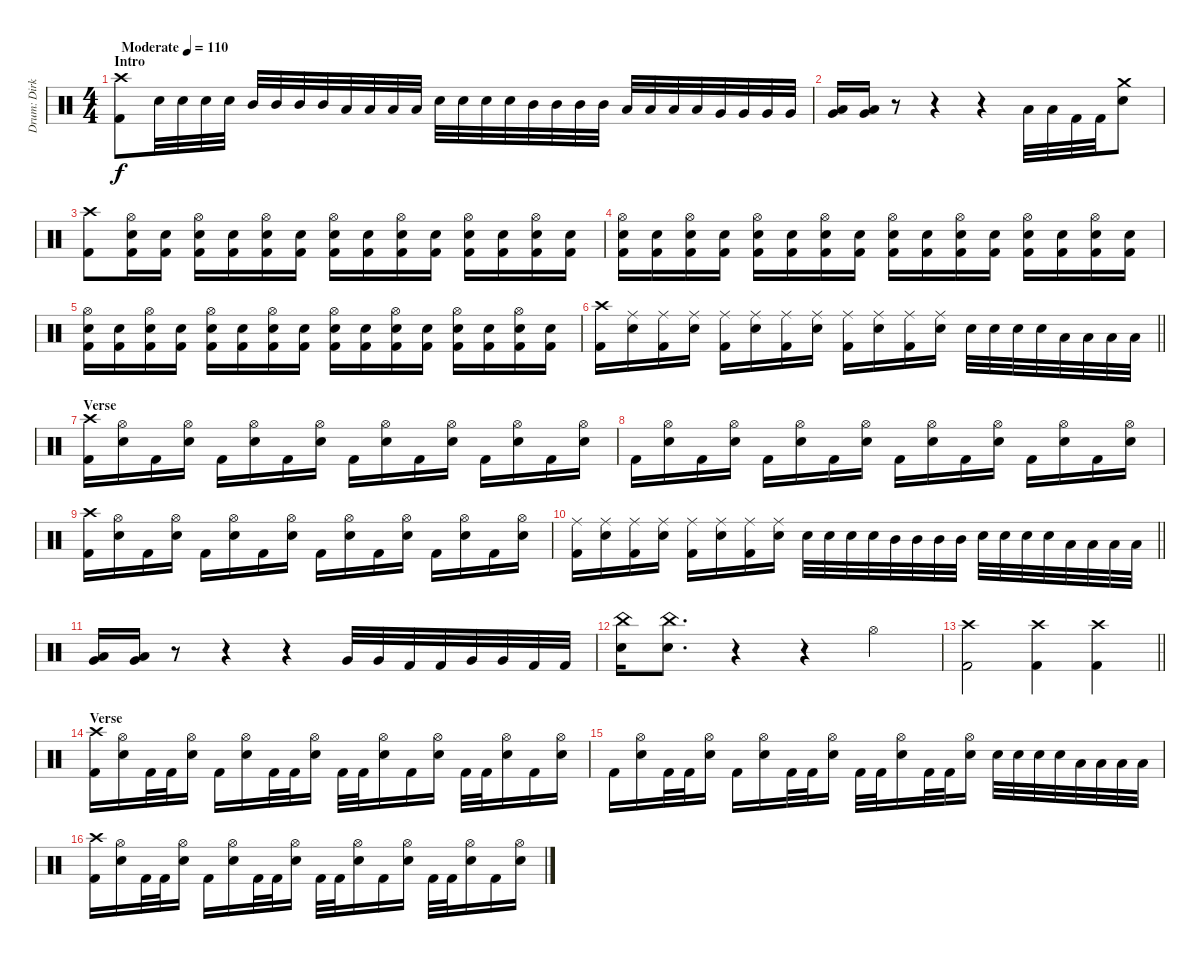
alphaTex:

\track ("Drum: Dirk" "Drum: Dirk") {instrument percussion}
\staff {score}
\articulation defaults
\ts (4 4)
\section ("" "Intro")
\tempo (110 "Moderate")
\clef neutral
\ks c
("Crash high (hit)" "Kick (hit) 2").8{dy f} "Electric Snare (hit)".32 "Electric Snare (hit)".32 "Electric Snare (hit)".32 "Electric Snare (hit)".32 "Mid Tom (hit)".32 "Mid Tom (hit)".32 "Mid Tom (hit)".32 "Mid Tom (hit)".32 "Low Tom (hit)".32 "Low Tom (hit)".32 "Low Tom (hit)".32 "Low Tom (hit)".32 "Electric Snare (hit)".32 "Electric Snare (hit)".32 "Electric Snare (hit)".32 "Electric Snare (hit)".32 "Mid Tom (hit)".32 "Mid Tom (hit)".32 "Mid Tom (hit)".32 "Mid Tom (hit)".32 "Low Tom (hit)".32 "Low Tom (hit)".32 "Low Tom (hit)".32 "Low Tom (hit)".32 "Very Low Tom (hit)".32 "Very Low Tom (hit)".32 "Very Low Tom (hit)".32 "Very Low Tom (hit)".32 |
("Low Tom (hit)" "Very Low Tom (hit)").16 ("Low Tom (hit)" "Very Low Tom (hit)").16 r.8 r.4 r.4 "Low Tom (hit)".32 "Low Tom (hit)".32 "Kick (hit) 2".32 "Kick (hit) 2".32 ("Crash medium (hit)" "Electric Snare (hit)").8 |
("Crash high (hit)" "Kick (hit) 2").8 ("Hi-Hat (open)" "Electric Snare (hit)" "Kick (hit) 2").16 ("Electric Snare (hit)" "Kick (hit) 2").16 ("Hi-Hat (open)" "Electric Snare (hit)" "Kick (hit) 2").16 ("Electric Snare (hit)" "Kick (hit) 2").16 ("Hi-Hat (open)" "Electric Snare (hit)" "Kick (hit) 2").16 ("Electric Snare (hit)" "Kick (hit) 2").16 ("Hi-Hat (open)" "Electric Snare (hit)" "Kick (hit) 2").16 ("Electric Snare (hit)" "Kick (hit) 2").16 ("Hi-Hat (open)" "Electric Snare (hit)" "Kick (hit) 2").16 ("Electric Snare (hit)" "Kick (hit) 2").16 ("Hi-Hat (open)" "Electric Snare (hit)" "Kick (hit) 2").16 ("Electric Snare (hit)" "Kick (hit) 2").16 ("Hi-Hat (open)" "Electric Snare (hit)" "Kick (hit) 2").16 ("Electric Snare (hit)" "Kick (hit) 2").16 |
("Hi-Hat (open)" "Electric Snare (hit)" "Kick (hit) 2").16 ("Electric Snare (hit)" "Kick (hit) 2").16 ("Hi-Hat (open)" "Electric Snare (hit)" "Kick (hit) 2").16 ("Electric Snare (hit)" "Kick (hit) 2").16 ("Hi-Hat (open)" "Electric Snare (hit)" "Kick (hit) 2").16 ("Electric Snare (hit)" "Kick (hit) 2").16 ("Hi-Hat (open)" "Electric Snare (hit)" "Kick (hit) 2").16 ("Electric Snare (hit)" "Kick (hit) 2").16 ("Hi-Hat (open)" "Electric Snare (hit)" "Kick (hit) 2").16 ("Electric Snare (hit)" "Kick (hit) 2").16 ("Hi-Hat (open)" "Electric Snare (hit)" "Kick (hit) 2").16 ("Electric Snare (hit)" "Kick (hit) 2").16 ("Hi-Hat (open)" "Electric Snare (hit)" "Kick (hit) 2").16 ("Electric Snare (hit)" "Kick (hit) 2").16 ("Hi-Hat (open)" "Electric Snare (hit)" "Kick (hit) 2").16 ("Electric Snare (hit)" "Kick (hit) 2").16 |
("Hi-Hat (open)" "Electric Snare (hit)" "Kick (hit) 2").16 ("Electric Snare (hit)" "Kick (hit) 2").16 ("Hi-Hat (open)" "Electric Snare (hit)" "Kick (hit) 2").16 ("Electric Snare (hit)" "Kick (hit) 2").16 ("Hi-Hat (open)" "Electric Snare (hit)" "Kick (hit) 2").16 ("Electric Snare (hit)" "Kick (hit) 2").16 ("Hi-Hat (open)" "Electric Snare (hit)" "Kick (hit) 2").16 ("Electric Snare (hit)" "Kick (hit) 2").16 ("Hi-Hat (open)" "Electric Snare (hit)" "Kick (hit) 2").16 ("Electric Snare (hit)" "Kick (hit) 2").16 ("Hi-Hat (open)" "Electric Snare (hit)" "Kick (hit) 2").16 ("Electric Snare (hit)" "Kick (hit) 2").16 ("Hi-Hat (open)" "Electric Snare (hit)" "Kick (hit) 2").16 ("Electric Snare (hit)" "Kick (hit) 2").16 ("Hi-Hat (open)" "Electric Snare (hit)" "Kick (hit) 2").16 ("Electric Snare (hit)" "Kick (hit) 2").16 |
\barLineRight lightlight
("Crash high (hit)" "Kick (hit) 2").16 ("Ride (middle)" "Electric Snare (hit)").16 ("Ride (middle)" "Kick (hit) 2").16 ("Ride (middle)" "Electric Snare (hit)").16 ("Ride (middle)" "Kick (hit) 2").16 ("Ride (middle)" "Electric Snare (hit)").16 ("Ride (middle)" "Kick (hit) 2").16 ("Ride (middle)" "Electric Snare (hit)").16 ("Ride (middle)" "Kick (hit) 2").16 ("Ride (middle)" "Electric Snare (hit)").16 ("Ride (middle)" "Kick (hit) 2").16 ("Ride (middle)" "Electric Snare (hit)").16 "Electric Snare (hit)".32 "Electric Snare (hit)".32 "Electric Snare (hit)".32 "Electric Snare (hit)".32 "Low Tom (hit)".32 "Low Tom (hit)".32 "Low Tom (hit)".32 "Low Tom (hit)".32 |
\section ("" "Verse")
("Crash high (hit)" "Kick (hit) 2").16 ("Hi-Hat (open)" "Electric Snare (hit)").16 "Kick (hit) 2".16 ("Hi-Hat (open)" "Electric Snare (hit)").16 "Kick (hit) 2".16 ("Hi-Hat (open)" "Electric Snare (hit)").16 "Kick (hit) 2".16 ("Hi-Hat (open)" "Electric Snare (hit)").16 "Kick (hit) 2".16 ("Hi-Hat (open)" "Electric Snare (hit)").16 "Kick (hit) 2".16 ("Hi-Hat (open)" "Electric Snare (hit)").16 "Kick (hit) 2".16 ("Hi-Hat (open)" "Electric Snare (hit)").16 "Kick (hit) 2".16 ("Hi-Hat (open)" "Electric Snare (hit)").16 |
"Kick (hit) 2".16 ("Hi-Hat (open)" "Electric Snare (hit)").16 "Kick (hit) 2".16 ("Hi-Hat (open)" "Electric Snare (hit)").16 "Kick (hit) 2".16 ("Hi-Hat (open)" "Electric Snare (hit)").16 "Kick (hit) 2".16 ("Hi-Hat (open)" "Electric Snare (hit)").16 "Kick (hit) 2".16 ("Hi-Hat (open)" "Electric Snare (hit)").16 "Kick (hit) 2".16 ("Hi-Hat (open)" "Electric Snare (hit)").16 "Kick (hit) 2".16 ("Hi-Hat (open)" "Electric Snare (hit)").16 "Kick (hit) 2".16 ("Hi-Hat (open)" "Electric Snare (hit)").16 |
("Crash high (hit)" "Kick (hit) 2").16 ("Hi-Hat (open)" "Electric Snare (hit)").16 "Kick (hit) 2".16 ("Hi-Hat (open)" "Electric Snare (hit)").16 "Kick (hit) 2".16 ("Hi-Hat (open)" "Electric Snare (hit)").16 "Kick (hit) 2".16 ("Hi-Hat (open)" "Electric Snare (hit)").16 "Kick (hit) 2".16 ("Hi-Hat (open)" "Electric Snare (hit)").16 "Kick (hit) 2".16 ("Hi-Hat (open)" "Electric Snare (hit)").16 "Kick (hit) 2".16 ("Hi-Hat (open)" "Electric Snare (hit)").16 "Kick (hit) 2".16 ("Hi-Hat (open)" "Electric Snare (hit)").16 |
\barLineRight lightlight
("Ride (middle)" "Kick (hit) 2").16 ("Ride (middle)" "Electric Snare (hit)").16 ("Ride (middle)" "Kick (hit) 2").16 ("Ride (middle)" "Electric Snare (hit)").16 ("Ride (middle)" "Kick (hit) 2").16 ("Ride (middle)" "Electric Snare (hit)").16 ("Ride (middle)" "Kick (hit) 2").16 ("Ride (middle)" "Electric Snare (hit)").16 "Electric Snare (hit)".32 "Electric Snare (hit)".32 "Electric Snare (hit)".32 "Electric Snare (hit)".32 "Mid Tom (hit)".32 "Mid Tom (hit)".32 "Mid Tom (hit)".32 "Mid Tom (hit)".32 "Electric Snare (hit)".32 "Electric Snare (hit)".32 "Electric Snare (hit)".32 "Electric Snare (hit)".32 "Low Tom (hit)".32 "Low Tom (hit)".32 "Low Tom (hit)".32 "Low Tom (hit)".32 |
\section ("" "")
("Low Tom (hit)" "Very Low Tom (hit)").16 ("Low Tom (hit)" "Very Low Tom (hit)").16 r.8 r.4 r.4 "Very Low Tom (hit)".32 "Very Low Tom (hit)".32 "Kick (hit) 2".32 "Kick (hit) 2".32 "Very Low Tom (hit)".32 "Very Low Tom (hit)".32 "Kick (hit) 2".32 "Kick (hit) 2".32 |
("China (hit)" "Electric Snare (hit)").16 ("China (hit)" "Electric Snare (hit)").8{d} r.4 r.4 "Hi-Hat (open)".4 |
\barLineRight lightlight
("Crash high (hit)" "Kick (hit) 2").2 ("Crash high (hit)" "Kick (hit) 2").4 ("Crash high (hit)" "Kick (hit) 2").4 |
\section ("" "Verse")
("Crash high (hit)" "Kick (hit) 2").16 ("Hi-Hat (open)" "Electric Snare (hit)").16 "Kick (hit) 2".32 "Kick (hit) 2".32 ("Hi-Hat (open)" "Electric Snare (hit)").16 "Kick (hit) 2".16 ("Hi-Hat (open)" "Electric Snare (hit)").16 "Kick (hit) 2".32 "Kick (hit) 2".32 ("Hi-Hat (open)" "Electric Snare (hit)").16 "Kick (hit) 2".32 "Kick (hit) 2".32 ("Hi-Hat (open)" "Electric Snare (hit)").16 "Kick (hit) 2".16 ("Hi-Hat (open)" "Electric Snare (hit)").16 "Kick (hit) 2".32 "Kick (hit) 2".32 ("Hi-Hat (open)" "Electric Snare (hit)").16 "Kick (hit) 2".16 ("Hi-Hat (open)" "Electric Snare (hit)").16 |
"Kick (hit) 2".16 ("Hi-Hat (open)" "Electric Snare (hit)").16 "Kick (hit) 2".32 "Kick (hit) 2".32 ("Hi-Hat (open)" "Electric Snare (hit)").16 "Kick (hit) 2".16 ("Hi-Hat (open)" "Electric Snare (hit)").16 "Kick (hit) 2".32 "Kick (hit) 2".32 ("Hi-Hat (open)" "Electric Snare (hit)").16 "Kick (hit) 2".32 "Kick (hit) 2".32 ("Hi-Hat (open)" "Electric Snare (hit)").16 "Kick (hit) 2".32 "Kick (hit) 2".32 ("Hi-Hat (open)" "Electric Snare (hit)").16 "Electric Snare (hit)".32 "Electric Snare (hit)".32 "Electric Snare (hit)".32 "Electric Snare (hit)".32 "Low Tom (hit)".32 "Low Tom (hit)".32 "Low Tom (hit)".32 "Low Tom (hit)".32 |
("Crash high (hit)" "Kick (hit) 2").16 ("Hi-Hat (open)" "Electric Snare (hit)").16 "Kick (hit) 2".32 "Kick (hit) 2".32 ("Hi-Hat (open)" "Electric Snare (hit)").16 "Kick (hit) 2".16 ("Hi-Hat (open)" "Electric Snare (hit)").16 "Kick (hit) 2".32 "Kick (hit) 2".32 ("Hi-Hat (open)" "Electric Snare (hit)").16 "Kick (hit) 2".32 "Kick (hit) 2".32 ("Hi-Hat (open)" "Electric Snare (hit)").16 "Kick (hit) 2".16 ("Hi-Hat (open)" "Electric Snare (hit)").16 "Kick (hit) 2".32 "Kick (hit) 2".32 ("Hi-Hat (open)" "Electric Snare (hit)").16 "Kick (hit) 2".16 ("Hi-Hat (open)" "Electric Snare (hit)").16
